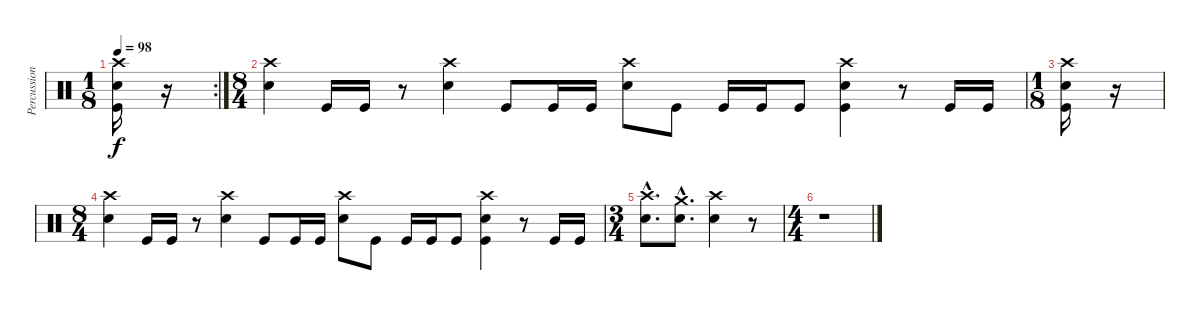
\track ("Percussion" "Percussion") {instrument percussion}
\staff {score}
\articulation defaults
\rc 2
\ts (1 8)
\tempo 98
\clef neutral
\ks c
("Crash high (hit)" "Electric Snare (hit)" "Kick (hit)").16{dy f} r.16 |
\ts (8 4)
("Crash high (hit)" "Electric Snare (hit)").4 "Kick (hit)".16 "Kick (hit)".16 r.8 ("Crash high (hit)" "Electric Snare (hit)").4 "Kick (hit)".8 "Kick (hit)".16 "Kick (hit)".16 ("Crash high (hit)" "Electric Snare (hit)").8 "Kick (hit)".8 "Kick (hit)".16 "Kick (hit)".16 "Kick (hit)".8 ("Crash high (hit)" "Electric Snare (hit)" "Kick (hit)").4 r.8 "Kick (hit)".16 "Kick (hit)".16 |
\ts (1 8)
("Crash high (hit)" "Electric Snare (hit)" "Kick (hit)").16 r.16 |
\ts (8 4)
("Crash high (hit)" "Electric Snare (hit)").4 "Kick (hit)".16 "Kick (hit)".16 r.8 ("Crash high (hit)" "Electric Snare (hit)").4 "Kick (hit)".8 "Kick (hit)".16 "Kick (hit)".16 ("Crash high (hit)" "Electric Snare (hit)").8 "Kick (hit)".8 "Kick (hit)".16 "Kick (hit)".16 "Kick (hit)".8 ("Crash high (hit)" "Electric Snare (hit)" "Kick (hit)").4 r.8 "Kick (hit)".16 "Kick (hit)".16 |
\ts (3 4)
("Crash high (hit)"{hac} "Electric Snare (hit)"{hac}).8{d} ("Crash medium (hit)"{hac} "Electric Snare (hit)"{hac}).8{d} ("Crash high (hit)" "Electric Snare (hit)").4 r.8 |
\ts (4 4)
r.1
